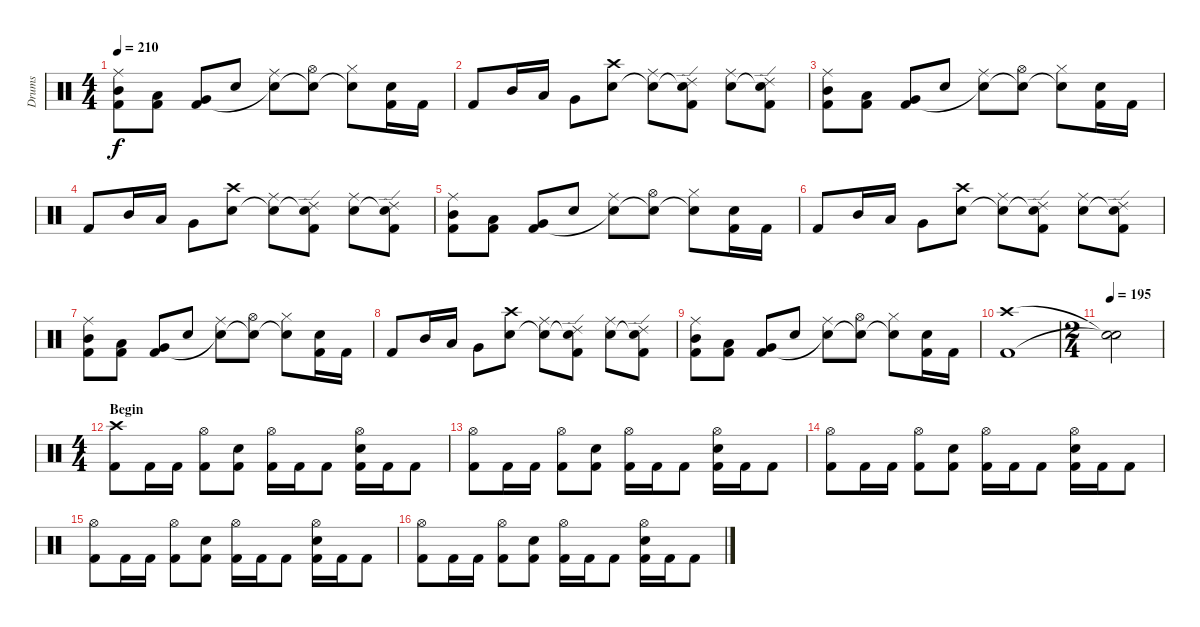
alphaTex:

\track ("Drums" "Drums") {instrument percussion}
\staff {score}
\articulation defaults
\ts (4 4)
\tempo 210
\clef neutral
\ks c
("Ride (middle)" "Mid Tom (hit)" "Kick (hit) 2").8{dy f} ("Low Tom (hit)" "Kick (hit) 2").8 ("Very Low Tom (hit)" "Kick (hit) 2").8 "Snare (hit) 2".8 ("Ride (middle)" "Snare (hit)"{t}).8 ("Hi-Hat (open)" "Snare (hit)"{t}).8 ("Hi-Hat (closed)" "Snare (hit)"{t}).8 ("Snare (hit) 2" "Kick (hit) 2").16 "Kick (hit) 2".16 |
"Kick (hit) 2".8 "Mid Tom (hit)".16 "Low Tom (hit)".16 "Very Low Tom (hit)".8 ("Crash high (hit)" "Snare (hit) 2").8 ("Ride (middle)" "Snare (hit)"{t}).8 ("Ride (edge) 2" "Snare (hit)"{t} "Kick (hit) 2").8 ("Ride (middle)" "Snare (hit) 2").8 ("Ride (edge) 2" "Snare (hit)"{t} "Kick (hit) 2").8 |
("Ride (middle)" "Mid Tom (hit)" "Kick (hit) 2").8 ("Low Tom (hit)" "Kick (hit) 2").8 ("Very Low Tom (hit)" "Kick (hit) 2").8 "Snare (hit) 2".8 ("Ride (middle)" "Snare (hit)"{t}).8 ("Hi-Hat (open)" "Snare (hit)"{t}).8 ("Hi-Hat (closed)" "Snare (hit)"{t}).8 ("Snare (hit) 2" "Kick (hit) 2").16 "Kick (hit) 2".16 |
"Kick (hit) 2".8 "Mid Tom (hit)".16 "Low Tom (hit)".16 "Very Low Tom (hit)".8 ("Crash high (hit)" "Snare (hit) 2").8 ("Ride (middle)" "Snare (hit)"{t}).8 ("Ride (edge) 2" "Snare (hit)"{t} "Kick (hit) 2").8 ("Ride (middle)" "Snare (hit) 2").8 ("Ride (edge) 2" "Snare (hit)"{t} "Kick (hit) 2").8 |
("Ride (middle)" "Mid Tom (hit)" "Kick (hit) 2").8 ("Low Tom (hit)" "Kick (hit) 2").8 ("Very Low Tom (hit)" "Kick (hit) 2").8 "Snare (hit) 2".8 ("Ride (middle)" "Snare (hit)"{t}).8 ("Hi-Hat (open)" "Snare (hit)"{t}).8 ("Hi-Hat (closed)" "Snare (hit)"{t}).8 ("Snare (hit) 2" "Kick (hit) 2").16 "Kick (hit) 2".16 |
"Kick (hit) 2".8 "Mid Tom (hit)".16 "Low Tom (hit)".16 "Very Low Tom (hit)".8 ("Crash high (hit)" "Snare (hit) 2").8 ("Ride (middle)" "Snare (hit)"{t}).8 ("Ride (edge) 2" "Snare (hit)"{t} "Kick (hit) 2").8 ("Ride (middle)" "Snare (hit) 2").8 ("Ride (edge) 2" "Snare (hit)"{t} "Kick (hit) 2").8 |
("Ride (middle)" "Mid Tom (hit)" "Kick (hit) 2").8 ("Low Tom (hit)" "Kick (hit) 2").8 ("Very Low Tom (hit)" "Kick (hit) 2").8 "Snare (hit) 2".8 ("Ride (middle)" "Snare (hit)"{t}).8 ("Hi-Hat (open)" "Snare (hit)"{t}).8 ("Hi-Hat (closed)" "Snare (hit)"{t}).8 ("Snare (hit) 2" "Kick (hit) 2").16 "Kick (hit) 2".16 |
"Kick (hit) 2".8 "Mid Tom (hit)".16 "Low Tom (hit)".16 "Very Low Tom (hit)".8 ("Crash high (hit)" "Snare (hit) 2").8 ("Ride (middle)" "Snare (hit)"{t}).8 ("Ride (edge) 2" "Snare (hit)"{t} "Kick (hit) 2").8 ("Ride (middle)" "Snare (hit) 2").8 ("Ride (edge) 2" "Snare (hit)"{t} "Kick (hit) 2").8 |
("Ride (middle)" "Mid Tom (hit)" "Kick (hit) 2").8 ("Low Tom (hit)" "Kick (hit) 2").8 ("Very Low Tom (hit)" "Kick (hit) 2").8 "Snare (hit) 2".8 ("Ride (middle)" "Snare (hit)"{t}).8 ("Hi-Hat (open)" "Snare (hit)"{t}).8 ("Hi-Hat (closed)" "Snare (hit)"{t}).8 ("Snare (hit) 2" "Kick (hit) 2").16 "Kick (hit) 2".16 |
("Crash high (hit)" "Kick (hit) 2").1 |
\ts (2 4)
\tempo 195
("Snare (hit)"{t} "Snare (hit)"{t}).2 |
\ts (4 4)
\section ("" "Begin")
("Crash high (hit)" "Kick (hit) 2").8 "Kick (hit) 2".16 "Kick (hit) 2".16 ("Hi-Hat (open)" "Kick (hit) 2").8 ("Snare (hit) 2" "Kick (hit) 2").8 ("Hi-Hat (open)" "Kick (hit) 2").16 "Kick (hit) 2".16 "Kick (hit) 2".8 ("Hi-Hat (open)" "Snare (hit) 2" "Kick (hit) 2").16 "Kick (hit) 2".16 "Kick (hit) 2".8 |
("Hi-Hat (open)" "Kick (hit) 2").8 "Kick (hit) 2".16 "Kick (hit) 2".16 ("Hi-Hat (open)" "Kick (hit) 2").8 ("Snare (hit) 2" "Kick (hit) 2").8 ("Hi-Hat (open)" "Kick (hit) 2").16 "Kick (hit) 2".16 "Kick (hit) 2".8 ("Hi-Hat (open)" "Snare (hit) 2" "Kick (hit) 2").16 "Kick (hit) 2".16 "Kick (hit) 2".8 |
("Hi-Hat (open)" "Kick (hit) 2").8 "Kick (hit) 2".16 "Kick (hit) 2".16 ("Hi-Hat (open)" "Kick (hit) 2").8 ("Snare (hit) 2" "Kick (hit) 2").8 ("Hi-Hat (open)" "Kick (hit) 2").16 "Kick (hit) 2".16 "Kick (hit) 2".8 ("Hi-Hat (open)" "Snare (hit) 2" "Kick (hit) 2").16 "Kick (hit) 2".16 "Kick (hit) 2".8 |
("Hi-Hat (open)" "Kick (hit) 2").8 "Kick (hit) 2".16 "Kick (hit) 2".16 ("Hi-Hat (open)" "Kick (hit) 2").8 ("Snare (hit) 2" "Kick (hit) 2").8 ("Hi-Hat (open)" "Kick (hit) 2").16 "Kick (hit) 2".16 "Kick (hit) 2".8 ("Hi-Hat (open)" "Snare (hit) 2" "Kick (hit) 2").16 "Kick (hit) 2".16 "Kick (hit) 2".8 |
("Hi-Hat (open)" "Kick (hit) 2").8 "Kick (hit) 2".16 "Kick (hit) 2".16 ("Hi-Hat (open)" "Kick (hit) 2").8 ("Snare (hit) 2" "Kick (hit) 2").8 ("Hi-Hat (open)" "Kick (hit) 2").16 "Kick (hit) 2".16 "Kick (hit) 2".8 ("Hi-Hat (open)" "Snare (hit) 2" "Kick (hit) 2").16 "Kick (hit) 2".16 "Kick (hit) 2".8
